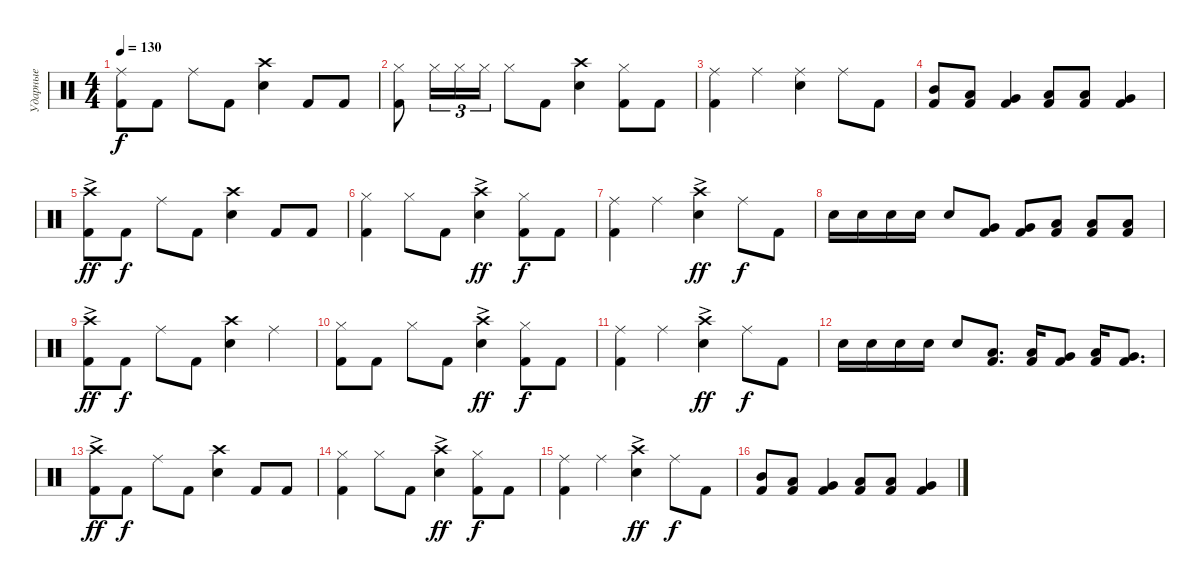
\track ("Ударные" "Ударные") {instrument percussion}
\staff {score}
\articulation defaults
\ts (4 4)
\tempo 130
\clef neutral
\ks c
("Kick (hit) 2" "Ride (middle)").8{dy f} "Kick (hit) 2".8 "Ride (middle)".8 "Kick (hit) 2".8 ("Snare (hit) 2" "Crash high (hit)").4 "Kick (hit) 2".8 "Kick (hit) 2".8 |
("Kick (hit) 2" "Hi-Hat (closed)").8 "Hi-Hat (closed)".16{tu (3 2)} "Hi-Hat (closed)".16{tu (3 2)} "Hi-Hat (closed)".16{tu (3 2)} "Hi-Hat (closed)".8 "Kick (hit) 2".8 ("Snare (hit) 2" "Crash high (hit)").4 ("Kick (hit) 2" "Hi-Hat (closed)").8 "Kick (hit) 2".8 |
("Kick (hit) 2" "Ride (middle)").4 "Ride (middle)".4 ("Snare (hit) 2" "Ride (middle)").4 "Ride (middle)".8 "Kick (hit) 2".8 |
("Kick (hit) 2" "Mid Tom (hit)").8 ("Kick (hit) 2" "Low Tom (hit)").8 ("Kick (hit) 2" "Very Low Tom (hit)").4 ("Kick (hit) 2" "Low Tom (hit)").8 ("Kick (hit) 2" "Low Tom (hit)").8 ("Kick (hit) 2" "Very Low Tom (hit)").4 |
("Kick (hit) 2" "Crash high (hit)"{ac}).8{dy ff volume 8} "Kick (hit) 2".8{dy f} "Ride (middle)".8 "Kick (hit) 2".8 ("Snare (hit) 2" "Crash high (hit)").4 "Kick (hit) 2".8 "Kick (hit) 2".8 |
("Kick (hit) 2" "Hi-Hat (closed)").4 "Hi-Hat (closed)".8 "Kick (hit) 2".8 ("Snare (hit) 2" "Crash high (hit)"{ac}).4{dy ff} ("Kick (hit) 2" "Hi-Hat (closed)").8{dy f} "Kick (hit) 2".8 |
("Kick (hit) 2" "Ride (middle)").4 "Ride (middle)".4 ("Snare (hit) 2" "Crash high (hit)"{ac}).4{dy ff} "Ride (middle)".8{dy f} "Kick (hit) 2".8 |
"Snare (hit) 2".16 "Snare (hit) 2".16 "Snare (hit) 2".16 "Snare (hit) 2".16 "Snare (hit) 2".8 ("Kick (hit) 2" "Very Low Tom (hit)").8 ("Kick (hit) 2" "Very Low Tom (hit)").8 ("Kick (hit) 2" "Low Floor Tom (hit)").8 ("Kick (hit) 2" "Low Floor Tom (hit)").8 ("Kick (hit) 2" "Low Floor Tom (hit)").8 |
("Kick (hit) 2" "Crash high (hit)"{ac}).8{dy ff volume 5} "Kick (hit) 2".8{dy f} "Ride (middle)".8 "Kick (hit) 2".8 ("Snare (hit) 2" "Crash high (hit)").4 "Ride (middle)".4 |
("Kick (hit) 2" "Hi-Hat (closed)").8 "Kick (hit) 2".8 "Hi-Hat (closed)".8 "Kick (hit) 2".8 ("Snare (hit) 2" "Crash high (hit)"{ac}).4{dy ff} ("Kick (hit) 2" "Hi-Hat (closed)").8{dy f} "Kick (hit) 2".8 |
("Kick (hit) 2" "Ride (middle)").4 "Ride (middle)".4 ("Snare (hit) 2" "Crash high (hit)"{ac}).4{dy ff} "Ride (middle)".8{dy f} "Kick (hit) 2".8 |
"Snare (hit) 2".16 "Snare (hit) 2".16 "Snare (hit) 2".16 "Snare (hit) 2".16 "Snare (hit) 2".8 ("Kick (hit) 2" "Low Tom (hit)").8{d} ("Kick (hit) 2" "Low Tom (hit)").16 ("Kick (hit) 2" "Very Low Tom (hit)").8 ("Kick (hit) 2" "Low Tom (hit)").16 ("Kick (hit) 2" "Very Low Tom (hit)").8{d} |
("Kick (hit) 2" "Crash high (hit)"{ac}).8{dy ff volume 0} "Kick (hit) 2".8{dy f} "Ride (middle)".8 "Kick (hit) 2".8 ("Snare (hit) 2" "Crash high (hit)").4 "Kick (hit) 2".8 "Kick (hit) 2".8 |
("Kick (hit) 2" "Hi-Hat (closed)").4 "Hi-Hat (closed)".8 "Kick (hit) 2".8 ("Snare (hit) 2" "Crash high (hit)"{ac}).4{dy ff} ("Kick (hit) 2" "Hi-Hat (closed)").8{dy f} "Kick (hit) 2".8 |
("Kick (hit) 2" "Ride (middle)").4 "Ride (middle)".4 ("Snare (hit) 2" "Crash high (hit)"{ac}).4{dy ff} "Ride (middle)".8{dy f} "Kick (hit) 2".8 |
("Kick (hit) 2" "Mid Tom (hit)").8 ("Kick (hit) 2" "Low Tom (hit)").8 ("Kick (hit) 2" "Very Low Tom (hit)").4 ("Kick (hit) 2" "Low Tom (hit)").8 ("Kick (hit) 2" "Low Tom (hit)").8 ("Kick (hit) 2" "Very Low Tom (hit)").4
